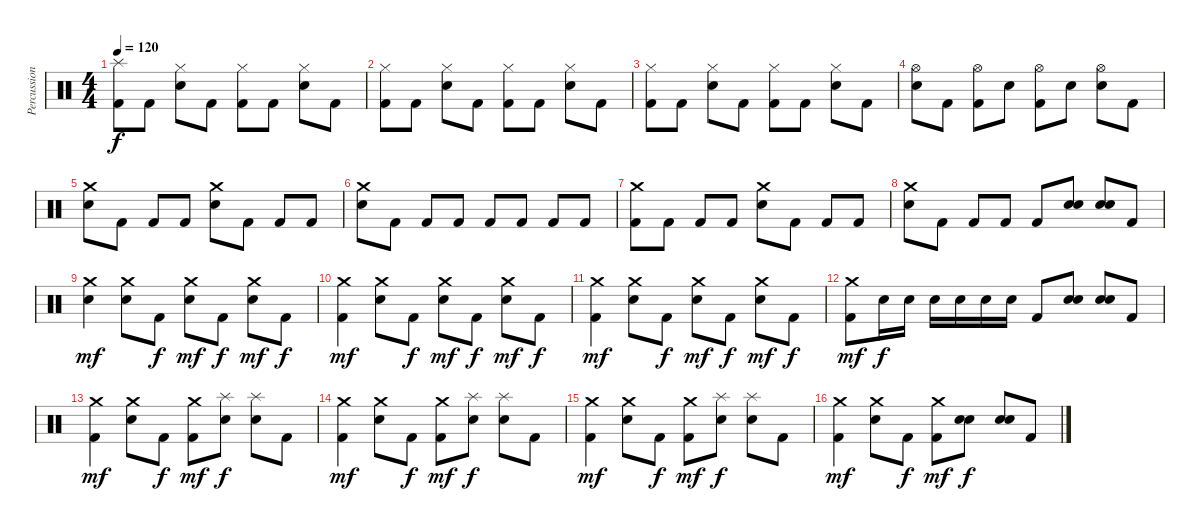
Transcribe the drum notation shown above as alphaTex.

\track ("Percussion" "Percussion") {instrument percussion}
\staff {score}
\articulation defaults
\ts (4 4)
\tempo 120
\clef neutral
\ks c
("Splash (hit)" "Kick (hit) 2").8{dy f} "Kick (hit) 2".8 ("Hi-Hat (closed)" "Electric Snare (hit)").8 "Kick (hit) 2".8 ("Hi-Hat (closed)" "Kick (hit) 2").8 "Kick (hit) 2".8 ("Hi-Hat (closed)" "Electric Snare (hit)").8 "Kick (hit) 2".8 |
("Hi-Hat (closed)" "Kick (hit) 2").8 "Kick (hit) 2".8 ("Hi-Hat (closed)" "Electric Snare (hit)").8 "Kick (hit) 2".8 ("Hi-Hat (closed)" "Kick (hit) 2").8 "Kick (hit) 2".8 ("Hi-Hat (closed)" "Electric Snare (hit)").8 "Kick (hit) 2".8 |
("Hi-Hat (closed)" "Kick (hit) 2").8 "Kick (hit) 2".8 ("Hi-Hat (closed)" "Electric Snare (hit)").8 "Kick (hit) 2".8 ("Hi-Hat (closed)" "Kick (hit) 2").8 "Kick (hit) 2".8 ("Hi-Hat (closed)" "Electric Snare (hit)").8 "Kick (hit) 2".8 |
("Hi-Hat (open)" "Electric Snare (hit)").8 "Kick (hit) 2".8 ("Hi-Hat (open)" "Kick (hit) 2").8 "Electric Snare (hit)".8 ("Hi-Hat (open)" "Kick (hit) 2").8 "Electric Snare (hit)".8 ("Hi-Hat (open)" "Electric Snare (hit)").8 "Kick (hit) 2".8 |
("Crash medium (hit)" "Electric Snare (hit)").8 "Kick (hit) 2".8 "Kick (hit) 2".8 "Kick (hit) 2".8 ("Crash medium (hit)" "Electric Snare (hit)").8 "Kick (hit) 2".8 "Kick (hit) 2".8 "Kick (hit) 2".8 |
("Crash medium (hit)" "Electric Snare (hit)").8 "Kick (hit) 2".8 "Kick (hit) 2".8 "Kick (hit) 2".8 "Kick (hit) 2".8 "Kick (hit) 2".8 "Kick (hit) 2".8 "Kick (hit) 2".8 |
("Crash medium (hit)" "Kick (hit) 2").8 "Kick (hit) 2".8 "Kick (hit) 2".8 "Kick (hit) 2".8 ("Crash medium (hit)" "Electric Snare (hit)").8 "Kick (hit) 2".8 "Kick (hit) 2".8 "Kick (hit) 2".8 |
("Crash medium (hit)" "Electric Snare (hit)").8 "Kick (hit) 2".8 "Kick (hit) 2".8 "Kick (hit) 2".8 "Kick (hit) 2".8 ("Electric Snare (hit)" "Electric Snare (hit)").8 ("Electric Snare (hit)" "Electric Snare (hit)").8 "Kick (hit) 2".8 |
("Crash medium (hit)" "Electric Snare (hit)").4{dy mf} ("Crash medium (hit)" "Electric Snare (hit)").8 "Kick (hit) 2".8{dy f} ("Crash medium (hit)" "Electric Snare (hit)").8{dy mf} "Kick (hit) 2".8{dy f} ("Crash medium (hit)" "Electric Snare (hit)").8{dy mf} "Kick (hit) 2".8{dy f} |
("Crash medium (hit)" "Kick (hit) 2").4{dy mf} ("Crash medium (hit)" "Electric Snare (hit)").8 "Kick (hit) 2".8{dy f} ("Crash medium (hit)" "Electric Snare (hit)").8{dy mf} "Kick (hit) 2".8{dy f} ("Crash medium (hit)" "Electric Snare (hit)").8{dy mf} "Kick (hit) 2".8{dy f} |
("Crash medium (hit)" "Kick (hit) 2").4{dy mf} ("Crash medium (hit)" "Electric Snare (hit)").8 "Kick (hit) 2".8{dy f} ("Crash medium (hit)" "Electric Snare (hit)").8{dy mf} "Kick (hit) 2".8{dy f} ("Crash medium (hit)" "Electric Snare (hit)").8{dy mf} "Kick (hit) 2".8{dy f} |
("Crash medium (hit)" "Kick (hit) 2").8{dy mf} "Electric Snare (hit)".16{dy f} "Electric Snare (hit)".16 "Electric Snare (hit)".16 "Electric Snare (hit)".16 "Electric Snare (hit)".16 "Electric Snare (hit)".16 "Kick (hit) 2".8 ("Electric Snare (hit)" "Electric Snare (hit)").8 ("Electric Snare (hit)" "Electric Snare (hit)").8 "Kick (hit) 2".8 |
("Crash medium (hit)" "Kick (hit) 2").4{dy mf} ("Crash medium (hit)" "Electric Snare (hit)").8 "Kick (hit) 2".8{dy f} ("Crash medium (hit)" "Kick (hit) 2").8{dy mf} ("Splash (hit)" "Electric Snare (hit)").8{dy f} ("Splash (hit)" "Electric Snare (hit)").8 "Kick (hit) 2".8 |
("Crash medium (hit)" "Kick (hit) 2").4{dy mf} ("Crash medium (hit)" "Electric Snare (hit)").8 "Kick (hit) 2".8{dy f} ("Crash medium (hit)" "Kick (hit) 2").8{dy mf} ("Splash (hit)" "Electric Snare (hit)").8{dy f} ("Splash (hit)" "Electric Snare (hit)").8 "Kick (hit) 2".8 |
("Crash medium (hit)" "Kick (hit) 2").4{dy mf} ("Crash medium (hit)" "Electric Snare (hit)").8 "Kick (hit) 2".8{dy f} ("Crash medium (hit)" "Kick (hit) 2").8{dy mf} ("Splash (hit)" "Electric Snare (hit)").8{dy f} ("Splash (hit)" "Electric Snare (hit)").8 "Kick (hit) 2".8 |
("Crash medium (hit)" "Kick (hit) 2").4{dy mf} ("Crash medium (hit)" "Electric Snare (hit)").8 "Kick (hit) 2".8{dy f} ("Crash medium (hit)" "Kick (hit) 2").8{dy mf} ("Electric Snare (hit)" "Electric Snare (hit)").8{dy f} ("Electric Snare (hit)" "Electric Snare (hit)").8 "Kick (hit) 2".8
